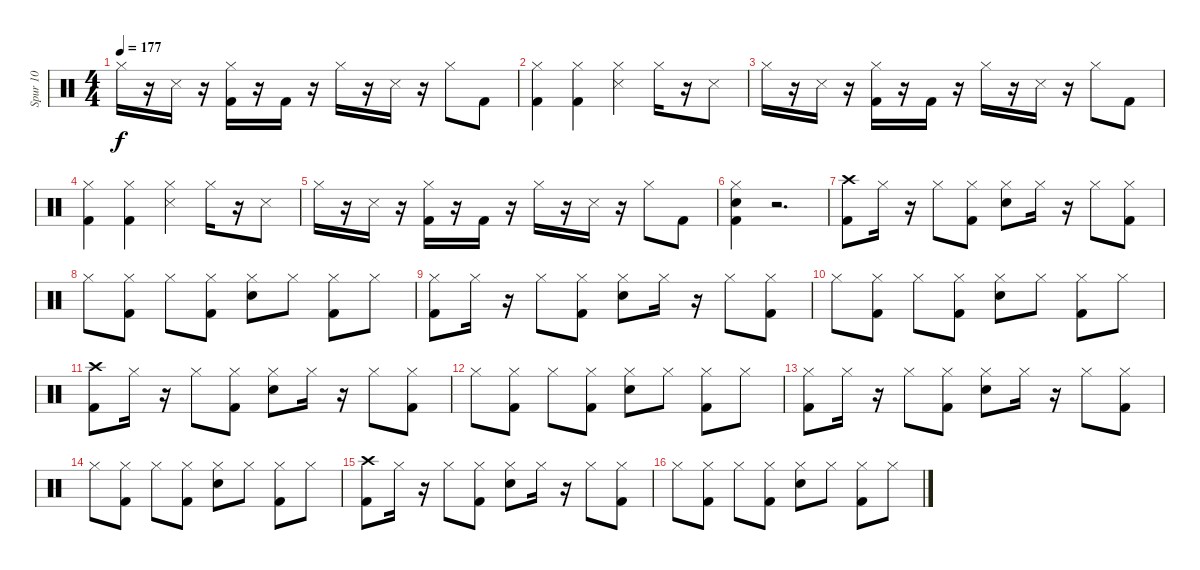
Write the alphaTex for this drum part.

\track ("Spur 10" "Spur 10") {instrument percussion}
\staff {score}
\articulation defaults
\ts (4 4)
\tempo 177
\clef neutral
\ks c "Hi-Hat (closed)".16{dy f}
r.16 "Metronome (hit)".16 r.16 ("Kick (hit) 2" "Hi-Hat (closed)").16 r.16 "Kick (hit) 2".16 r.16 "Hi-Hat (closed)".16 r.16 "Metronome (hit)".16 r.16 "Hi-Hat (closed)".8 "Kick (hit) 2".8 |
("Hi-Hat (closed)" "Kick (hit) 2").4 ("Hi-Hat (closed)" "Kick (hit) 2").4 ("Hi-Hat (closed)" "Metronome (hit)").4 "Hi-Hat (closed)".16 r.16 "Metronome (hit)".8 |
"Hi-Hat (closed)".16 r.16 "Metronome (hit)".16 r.16 ("Kick (hit) 2" "Hi-Hat (closed)").16 r.16 "Kick (hit) 2".16 r.16 "Hi-Hat (closed)".16 r.16 "Metronome (hit)".16 r.16 "Hi-Hat (closed)".8 "Kick (hit) 2".8 |
("Hi-Hat (closed)" "Kick (hit) 2").4 ("Hi-Hat (closed)" "Kick (hit) 2").4 ("Hi-Hat (closed)" "Metronome (hit)").4 "Hi-Hat (closed)".16 r.16 "Metronome (hit)".8 |
"Hi-Hat (closed)".16 r.16 "Metronome (hit)".16 r.16 ("Kick (hit) 2" "Hi-Hat (closed)").16 r.16 "Kick (hit) 2".16 r.16 "Hi-Hat (closed)".16 r.16 "Metronome (hit)".16 r.16 "Hi-Hat (closed)".8 "Kick (hit) 2".8 |
("Electric Snare (hit)" "Hi-Hat (closed)" "Kick (hit) 2").4 r.2{d} |
("Crash high (hit)" "Kick (hit) 2").8 "Hi-Hat (closed)".16 r.16 "Hi-Hat (closed)".8 ("Kick (hit) 2" "Hi-Hat (closed)").8 ("Hi-Hat (closed)" "Electric Snare (hit)").8 "Hi-Hat (closed)".16 r.16 "Hi-Hat (closed)".8 ("Kick (hit) 2" "Hi-Hat (closed)").8 |
"Hi-Hat (closed)".8 ("Kick (hit) 2" "Hi-Hat (closed)").8 "Hi-Hat (closed)".8 ("Hi-Hat (closed)" "Kick (hit) 2").8 ("Hi-Hat (closed)" "Electric Snare (hit)").8 "Hi-Hat (closed)".8 ("Kick (hit) 2" "Hi-Hat (closed)").8 "Hi-Hat (closed)".8 |
("Kick (hit) 2" "Hi-Hat (closed)").8 "Hi-Hat (closed)".16 r.16 "Hi-Hat (closed)".8 ("Hi-Hat (closed)" "Kick (hit) 2").8 ("Electric Snare (hit)" "Hi-Hat (closed)").8 "Hi-Hat (closed)".16 r.16 "Hi-Hat (closed)".8 ("Kick (hit) 2" "Hi-Hat (closed)").8 |
"Hi-Hat (closed)".8 ("Kick (hit) 2" "Hi-Hat (closed)").8 "Hi-Hat (closed)".8 ("Hi-Hat (closed)" "Kick (hit) 2").8 ("Hi-Hat (closed)" "Electric Snare (hit)").8 "Hi-Hat (closed)".8 ("Kick (hit) 2" "Hi-Hat (closed)").8 "Hi-Hat (closed)".8 |
("Crash high (hit)" "Kick (hit) 2").8 "Hi-Hat (closed)".16 r.16 "Hi-Hat (closed)".8 ("Kick (hit) 2" "Hi-Hat (closed)").8 ("Hi-Hat (closed)" "Electric Snare (hit)").8 "Hi-Hat (closed)".16 r.16 "Hi-Hat (closed)".8 ("Kick (hit) 2" "Hi-Hat (closed)").8 |
"Hi-Hat (closed)".8 ("Kick (hit) 2" "Hi-Hat (closed)").8 "Hi-Hat (closed)".8 ("Hi-Hat (closed)" "Kick (hit) 2").8 ("Hi-Hat (closed)" "Electric Snare (hit)").8 "Hi-Hat (closed)".8 ("Kick (hit) 2" "Hi-Hat (closed)").8 "Hi-Hat (closed)".8 |
("Kick (hit) 2" "Hi-Hat (closed)").8 "Hi-Hat (closed)".16 r.16 "Hi-Hat (closed)".8 ("Hi-Hat (closed)" "Kick (hit) 2").8 ("Electric Snare (hit)" "Hi-Hat (closed)").8 "Hi-Hat (closed)".16 r.16 "Hi-Hat (closed)".8 ("Kick (hit) 2" "Hi-Hat (closed)").8 |
"Hi-Hat (closed)".8 ("Kick (hit) 2" "Hi-Hat (closed)").8 "Hi-Hat (closed)".8 ("Hi-Hat (closed)" "Kick (hit) 2").8 ("Hi-Hat (closed)" "Electric Snare (hit)").8 "Hi-Hat (closed)".8 ("Kick (hit) 2" "Hi-Hat (closed)").8 "Hi-Hat (closed)".8 |
("Crash high (hit)" "Kick (hit) 2").8 "Hi-Hat (closed)".16 r.16 "Hi-Hat (closed)".8 ("Kick (hit) 2" "Hi-Hat (closed)").8 ("Hi-Hat (closed)" "Electric Snare (hit)").8 "Hi-Hat (closed)".16 r.16 "Hi-Hat (closed)".8 ("Kick (hit) 2" "Hi-Hat (closed)").8 |
"Hi-Hat (closed)".8 ("Kick (hit) 2" "Hi-Hat (closed)").8 "Hi-Hat (closed)".8 ("Hi-Hat (closed)" "Kick (hit) 2").8 ("Hi-Hat (closed)" "Electric Snare (hit)").8 "Hi-Hat (closed)".8 ("Kick (hit) 2" "Hi-Hat (closed)").8 "Hi-Hat (closed)".8
